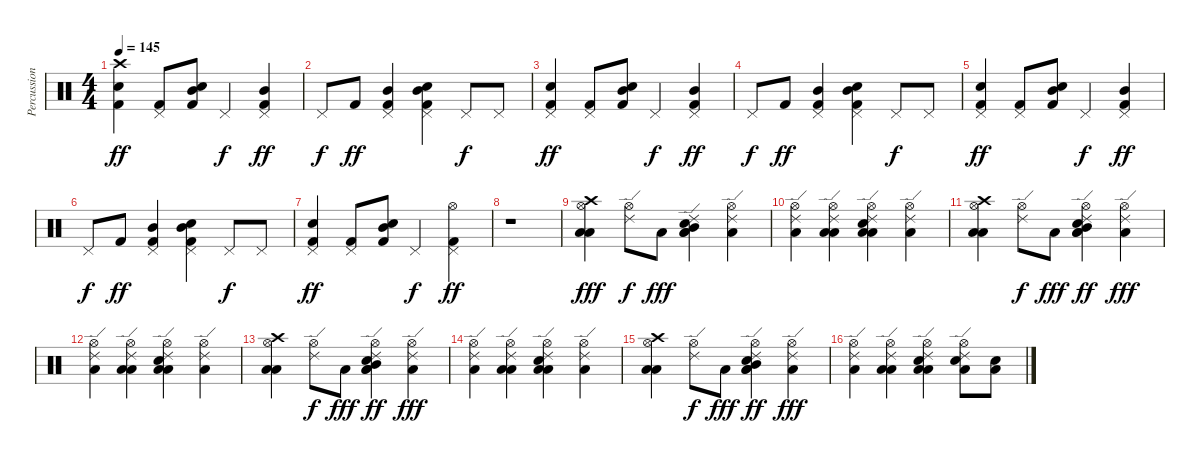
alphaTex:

\track ("Percussion" "Percussion") {instrument percussion}
\staff {score}
\articulation defaults
\ts (4 4)
\tempo 145
\clef neutral
\ks c
("Crash high (hit)" "Snare (hit) 2" "Kick (hit) 2").4{dy ff} ("Pedal Hi-Hat (hit)" "Kick (hit) 2").8 ("Mid Tom (hit)" "Snare (hit) 2" "Kick (hit) 2").8 "Pedal Hi-Hat (hit)".4{dy f} ("Pedal Hi-Hat (hit)" "Mid Tom (hit)" "Kick (hit) 2").4{dy ff} |
"Pedal Hi-Hat (hit)".8{dy f} "Kick (hit) 2".8{dy ff} ("Pedal Hi-Hat (hit)" "Mid Tom (hit)" "Kick (hit) 2").4 ("Pedal Hi-Hat (hit)" "Mid Tom (hit)" "Snare (hit) 2" "Kick (hit) 2").4 "Pedal Hi-Hat (hit)".8{dy f} "Pedal Hi-Hat (hit)".8 |
("Pedal Hi-Hat (hit)" "Snare (hit) 2" "Kick (hit) 2").4{dy ff} ("Pedal Hi-Hat (hit)" "Kick (hit) 2").8 ("Mid Tom (hit)" "Snare (hit) 2" "Kick (hit) 2").8 "Pedal Hi-Hat (hit)".4{dy f} ("Pedal Hi-Hat (hit)" "Mid Tom (hit)" "Kick (hit) 2").4{dy ff} |
"Pedal Hi-Hat (hit)".8{dy f} "Kick (hit) 2".8{dy ff} ("Pedal Hi-Hat (hit)" "Mid Tom (hit)" "Kick (hit) 2").4 ("Pedal Hi-Hat (hit)" "Mid Tom (hit)" "Snare (hit) 2" "Kick (hit) 2").4 "Pedal Hi-Hat (hit)".8{dy f} "Pedal Hi-Hat (hit)".8 |
("Pedal Hi-Hat (hit)" "Snare (hit) 2" "Kick (hit) 2").4{dy ff} ("Pedal Hi-Hat (hit)" "Kick (hit) 2").8 ("Mid Tom (hit)" "Snare (hit) 2" "Kick (hit) 2").8 "Pedal Hi-Hat (hit)".4{dy f} ("Pedal Hi-Hat (hit)" "Mid Tom (hit)" "Kick (hit) 2").4{dy ff} |
"Pedal Hi-Hat (hit)".8{dy f} "Kick (hit) 2".8{dy ff} ("Pedal Hi-Hat (hit)" "Mid Tom (hit)" "Kick (hit) 2").4 ("Pedal Hi-Hat (hit)" "Mid Tom (hit)" "Snare (hit) 2" "Kick (hit) 2").4 "Pedal Hi-Hat (hit)".8{dy f} "Pedal Hi-Hat (hit)".8 |
("Pedal Hi-Hat (hit)" "Snare (hit) 2" "Kick (hit) 2").4{dy ff} ("Pedal Hi-Hat (hit)" "Kick (hit) 2").8 ("Mid Tom (hit)" "Snare (hit) 2" "Kick (hit) 2").8 "Pedal Hi-Hat (hit)".4{dy f} ("Pedal Hi-Hat (hit)" "Hi-Hat (open)" "Kick (hit) 2").4{dy ff} |
r.1 |
("Crash high (hit)" "Hi-Hat (open)" "Low Tom (hit)" "Low Floor Tom (hit)").4{dy fff} ("Ride (edge) 2" "Hi-Hat (open)").8{dy f} "Low Floor Tom (hit)".8{dy fff} ("Ride (edge) 2" "Mid Tom (hit)" "Low Tom (hit)" "Snare (hit) 2" "Low Floor Tom (hit)").4 ("Ride (edge) 2" "Hi-Hat (open)" "Low Floor Tom (hit)").4 |
("Ride (edge) 2" "Hi-Hat (open)" "Low Floor Tom (hit)").4 ("Ride (edge) 2" "Hi-Hat (open)" "Low Tom (hit)" "Low Floor Tom (hit)").4 ("Ride (edge) 2" "Hi-Hat (open)" "Snare (hit) 2" "Low Tom (hit)" "Low Floor Tom (hit)").4 ("Ride (edge) 2" "Hi-Hat (open)" "Low Floor Tom (hit)").4 |
("Crash high (hit)" "Hi-Hat (open)" "Low Tom (hit)" "Low Floor Tom (hit)").4 ("Ride (edge) 2" "Hi-Hat (open)").8{dy f} "Low Floor Tom (hit)".8{dy fff} ("Ride (edge) 2" "Mid Tom (hit)" "Low Tom (hit)" "Snare (hit) 2" "Low Floor Tom (hit)" "Hi-Hat (open)").4{dy ff} ("Ride (edge) 2" "Hi-Hat (open)" "Low Floor Tom (hit)").4{dy fff} |
("Ride (edge) 2" "Hi-Hat (open)" "Low Floor Tom (hit)").4 ("Ride (edge) 2" "Hi-Hat (open)" "Low Tom (hit)" "Low Floor Tom (hit)").4 ("Ride (edge) 2" "Hi-Hat (open)" "Snare (hit) 2" "Low Tom (hit)" "Low Floor Tom (hit)").4 ("Ride (edge) 2" "Hi-Hat (open)" "Low Floor Tom (hit)").4 |
("Crash high (hit)" "Hi-Hat (open)" "Low Tom (hit)" "Low Floor Tom (hit)").4 ("Ride (edge) 2" "Hi-Hat (open)").8{dy f} "Low Floor Tom (hit)".8{dy fff} ("Ride (edge) 2" "Mid Tom (hit)" "Low Tom (hit)" "Snare (hit) 2" "Low Floor Tom (hit)" "Hi-Hat (open)").4{dy ff} ("Ride (edge) 2" "Hi-Hat (open)" "Low Floor Tom (hit)").4{dy fff} |
("Ride (edge) 2" "Hi-Hat (open)" "Low Floor Tom (hit)").4 ("Ride (edge) 2" "Hi-Hat (open)" "Low Tom (hit)" "Low Floor Tom (hit)").4 ("Ride (edge) 2" "Hi-Hat (open)" "Snare (hit) 2" "Low Tom (hit)" "Low Floor Tom (hit)").4 ("Ride (edge) 2" "Hi-Hat (open)" "Low Floor Tom (hit)").4 |
("Crash high (hit)" "Hi-Hat (open)" "Low Tom (hit)" "Low Floor Tom (hit)").4 ("Ride (edge) 2" "Hi-Hat (open)").8{dy f} "Low Floor Tom (hit)".8{dy fff} ("Ride (edge) 2" "Mid Tom (hit)" "Low Tom (hit)" "Snare (hit) 2" "Low Floor Tom (hit)" "Hi-Hat (open)").4{dy ff} ("Ride (edge) 2" "Hi-Hat (open)" "Low Floor Tom (hit)").4{dy fff} |
("Ride (edge) 2" "Hi-Hat (open)" "Low Floor Tom (hit)").4 ("Ride (edge) 2" "Hi-Hat (open)" "Low Tom (hit)" "Low Floor Tom (hit)").4 ("Ride (edge) 2" "Hi-Hat (open)" "Snare (hit) 2" "Low Tom (hit)" "Low Floor Tom (hit)").4 ("Ride (edge) 2" "Hi-Hat (open)" "Snare (hit) 2" "Low Floor Tom (hit)").8 ("Snare (hit) 2" "Low Floor Tom (hit)").8
